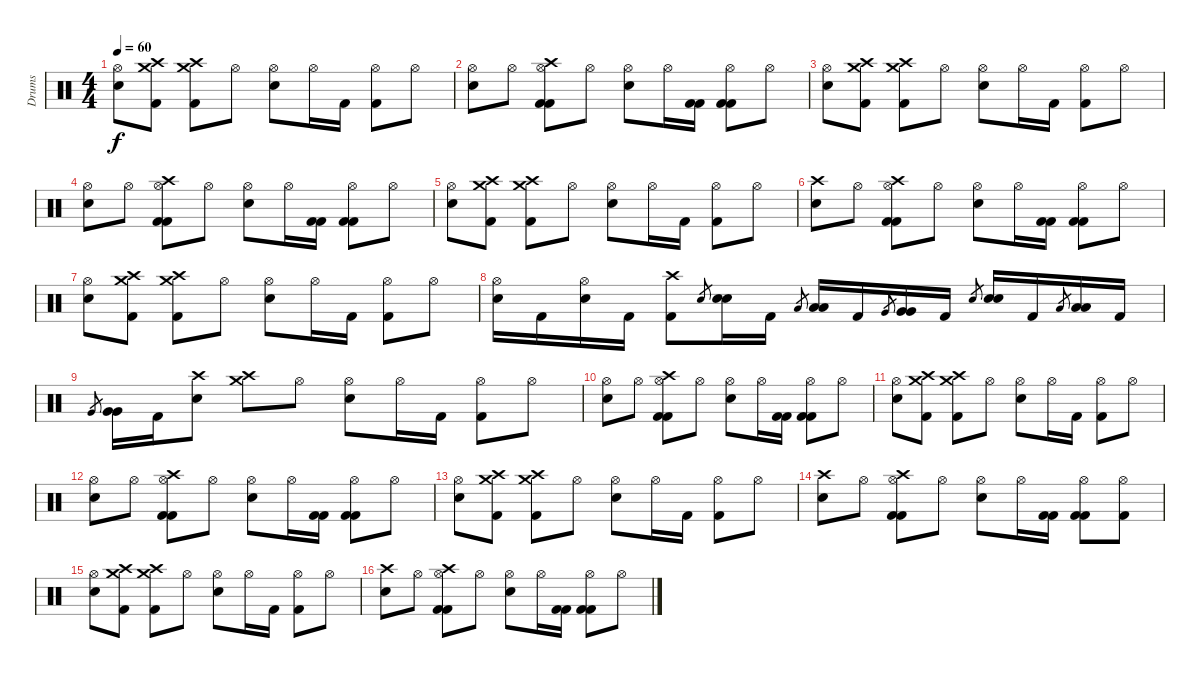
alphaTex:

\track ("Drums" "Drums") {instrument percussion}
\staff {score}
\articulation defaults
\ts (4 4)
\tempo 60
\clef neutral
\ks c
("Hi-Hat (open)" "Snare (hit) 2").8{dy f} ("Crash high (hit)" "Crash medium (hit)" "Kick (hit) 2").8 ("Crash high (hit)" "Crash medium (hit)" "Kick (hit) 2").8 "Hi-Hat (open)".8 ("Hi-Hat (open)" "Snare (hit) 2").8 "Hi-Hat (open)".16 "Kick (hit) 2".16 ("Hi-Hat (open)" "Kick (hit) 2").8 "Hi-Hat (open)".8 |
("Hi-Hat (open)" "Snare (hit) 2").8 "Hi-Hat (open)".8 ("Hi-Hat (open)" "Crash high (hit)" "Kick (hit) 2" "Kick (hit) 2").8 "Hi-Hat (open)".8 ("Hi-Hat (open)" "Snare (hit) 2").8 "Hi-Hat (open)".16 ("Kick (hit) 2" "Kick (hit) 2").16 ("Hi-Hat (open)" "Kick (hit) 2" "Kick (hit) 2").8 "Hi-Hat (open)".8 |
("Hi-Hat (open)" "Snare (hit) 2").8 ("Crash high (hit)" "Crash medium (hit)" "Kick (hit) 2").8 ("Crash high (hit)" "Crash medium (hit)" "Kick (hit) 2").8 "Hi-Hat (open)".8 ("Hi-Hat (open)" "Snare (hit) 2").8 "Hi-Hat (open)".16 "Kick (hit) 2".16 ("Hi-Hat (open)" "Kick (hit) 2").8 "Hi-Hat (open)".8 |
("Hi-Hat (open)" "Snare (hit) 2").8 "Hi-Hat (open)".8 ("Hi-Hat (open)" "Crash high (hit)" "Kick (hit) 2" "Kick (hit) 2").8 "Hi-Hat (open)".8 ("Hi-Hat (open)" "Snare (hit) 2").8 "Hi-Hat (open)".16 ("Kick (hit) 2" "Kick (hit) 2").16 ("Hi-Hat (open)" "Kick (hit) 2" "Kick (hit) 2").8 "Hi-Hat (open)".8 |
("Hi-Hat (open)" "Snare (hit) 2").8 ("Crash high (hit)" "Crash medium (hit)" "Kick (hit) 2").8 ("Crash high (hit)" "Crash medium (hit)" "Kick (hit) 2").8 "Hi-Hat (open)".8 ("Hi-Hat (open)" "Snare (hit) 2").8 "Hi-Hat (open)".16 "Kick (hit) 2".16 ("Hi-Hat (open)" "Kick (hit) 2").8 "Hi-Hat (open)".8 |
("Crash high (hit)" "Snare (hit) 2").8 "Hi-Hat (open)".8 ("Hi-Hat (open)" "Crash high (hit)" "Kick (hit) 2" "Kick (hit) 2").8 "Hi-Hat (open)".8 ("Hi-Hat (open)" "Snare (hit) 2").8 "Hi-Hat (open)".16 ("Kick (hit) 2" "Kick (hit) 2").16 ("Hi-Hat (open)" "Kick (hit) 2" "Kick (hit) 2").8 "Hi-Hat (open)".8 |
("Hi-Hat (open)" "Snare (hit) 2").8 ("Crash high (hit)" "Crash medium (hit)" "Kick (hit) 2").8 ("Crash high (hit)" "Crash medium (hit)" "Kick (hit) 2").8 "Hi-Hat (open)".8 ("Hi-Hat (open)" "Snare (hit) 2").8 "Hi-Hat (open)".16 "Kick (hit) 2".16 ("Hi-Hat (open)" "Kick (hit) 2").8 "Hi-Hat (open)".8 |
("Hi-Hat (open)" "Snare (hit) 2").16 "Kick (hit) 2".16 ("Hi-Hat (open)" "Snare (hit) 2").16 "Kick (hit) 2".16 ("Crash high (hit)" "Kick (hit) 2").8 "Snare (hit) 2".8{gr} ("Snare (hit) 2" "Snare (hit) 2").16 "Kick (hit) 2".16 "Low Tom (hit)".8{gr} ("Low Tom (hit)" "Low Tom (hit)").16 "Kick (hit) 2".16 "Very Low Tom (hit)".8{gr} ("Very Low Tom (hit)" "Very Low Tom (hit)").16 "Kick (hit) 2".16 "Snare (hit) 2".8{gr} ("Snare (hit) 2" "Snare (hit) 2").16 "Kick (hit) 2".16 "Low Tom (hit)".8{gr} ("Low Tom (hit)" "Low Tom (hit)").16 "Kick (hit) 2".16 |
"Very Low Tom (hit)".8{gr} ("Very Low Tom (hit)" "Very Low Tom (hit)").16 "Kick (hit) 2".16 ("Crash high (hit)" "Snare (hit) 2").8 ("Crash high (hit)" "Crash medium (hit)").8 "Hi-Hat (open)".8 ("Hi-Hat (open)" "Snare (hit) 2").8 "Hi-Hat (open)".16 "Kick (hit) 2".16 ("Hi-Hat (open)" "Kick (hit) 2").8 "Hi-Hat (open)".8 |
("Hi-Hat (open)" "Snare (hit) 2").8 "Hi-Hat (open)".8 ("Hi-Hat (open)" "Crash high (hit)" "Kick (hit) 2" "Kick (hit) 2").8 "Hi-Hat (open)".8 ("Hi-Hat (open)" "Snare (hit) 2").8 "Hi-Hat (open)".16 ("Kick (hit) 2" "Kick (hit) 2").16 ("Hi-Hat (open)" "Kick (hit) 2" "Kick (hit) 2").8 "Hi-Hat (open)".8 |
("Hi-Hat (open)" "Snare (hit) 2").8 ("Crash high (hit)" "Crash medium (hit)" "Kick (hit) 2").8 ("Crash high (hit)" "Crash medium (hit)" "Kick (hit) 2").8 "Hi-Hat (open)".8 ("Hi-Hat (open)" "Snare (hit) 2").8 "Hi-Hat (open)".16 "Kick (hit) 2".16 ("Hi-Hat (open)" "Kick (hit) 2").8 "Hi-Hat (open)".8 |
("Hi-Hat (open)" "Snare (hit) 2").8 "Hi-Hat (open)".8 ("Hi-Hat (open)" "Crash high (hit)" "Kick (hit) 2" "Kick (hit) 2").8 "Hi-Hat (open)".8 ("Hi-Hat (open)" "Snare (hit) 2").8 "Hi-Hat (open)".16 ("Kick (hit) 2" "Kick (hit) 2").16 ("Hi-Hat (open)" "Kick (hit) 2" "Kick (hit) 2").8 "Hi-Hat (open)".8 |
("Hi-Hat (open)" "Snare (hit) 2").8 ("Crash high (hit)" "Crash medium (hit)" "Kick (hit) 2").8 ("Crash high (hit)" "Crash medium (hit)" "Kick (hit) 2").8 "Hi-Hat (open)".8 ("Hi-Hat (open)" "Snare (hit) 2").8 "Hi-Hat (open)".16 "Kick (hit) 2".16 ("Hi-Hat (open)" "Kick (hit) 2").8 "Hi-Hat (open)".8 |
("Crash high (hit)" "Snare (hit) 2").8 "Hi-Hat (open)".8 ("Hi-Hat (open)" "Crash high (hit)" "Kick (hit) 2" "Kick (hit) 2").8 "Hi-Hat (open)".8 ("Hi-Hat (open)" "Snare (hit) 2").8 "Hi-Hat (open)".16 ("Kick (hit) 2" "Kick (hit) 2").16 ("Hi-Hat (open)" "Kick (hit) 2" "Kick (hit) 2").8 ("Hi-Hat (open)" "Kick (hit) 2").8 |
("Hi-Hat (open)" "Snare (hit) 2").8 ("Crash high (hit)" "Crash medium (hit)" "Kick (hit) 2").8 ("Crash high (hit)" "Crash medium (hit)" "Kick (hit) 2").8 "Hi-Hat (open)".8 ("Hi-Hat (open)" "Snare (hit) 2").8 "Hi-Hat (open)".16 "Kick (hit) 2".16 ("Hi-Hat (open)" "Kick (hit) 2").8 "Hi-Hat (open)".8 |
("Crash high (hit)" "Snare (hit) 2").8 "Hi-Hat (open)".8 ("Hi-Hat (open)" "Crash high (hit)" "Kick (hit) 2" "Kick (hit) 2").8 "Hi-Hat (open)".8 ("Hi-Hat (open)" "Snare (hit) 2").8 "Hi-Hat (open)".16 ("Kick (hit) 2" "Kick (hit) 2").16 ("Hi-Hat (open)" "Kick (hit) 2" "Kick (hit) 2").8 "Hi-Hat (open)".8
